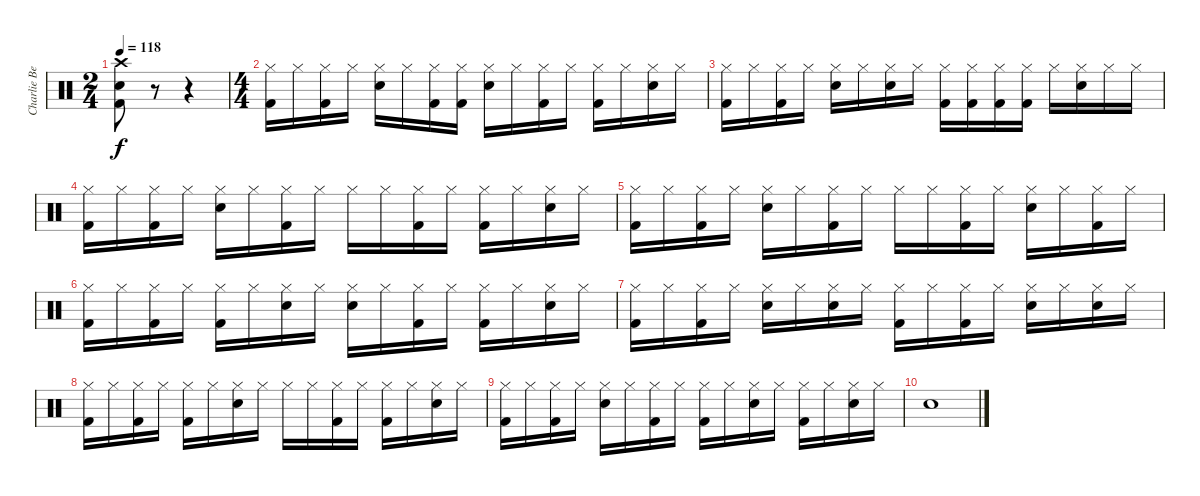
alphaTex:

\track ("Charlie Benante" "Charlie Be") {instrument percussion}
\staff {score}
\articulation defaults
\ts (2 4)
\tempo 118
\clef neutral
\ks c
("Crash high (hit)" "Snare (hit) 2" "Kick (hit) 2").8{dy f} r.8 r.4 |
\ts (4 4)
("Hi-Hat (closed)" "Kick (hit) 2").16 "Hi-Hat (closed)".16 ("Hi-Hat (closed)" "Kick (hit) 2").16 "Hi-Hat (closed)".16 ("Hi-Hat (closed)" "Snare (hit) 2").16 "Hi-Hat (closed)".16 ("Hi-Hat (closed)" "Kick (hit) 2").16 ("Hi-Hat (closed)" "Kick (hit) 2").16 ("Hi-Hat (closed)" "Snare (hit) 2").16 "Hi-Hat (closed)".16 ("Hi-Hat (closed)" "Kick (hit) 2").16 "Hi-Hat (closed)".16 ("Hi-Hat (closed)" "Kick (hit) 2").16 "Hi-Hat (closed)".16 ("Hi-Hat (closed)" "Snare (hit) 2").16 "Hi-Hat (closed)".16 |
("Hi-Hat (closed)" "Kick (hit) 2").16 "Hi-Hat (closed)".16 ("Hi-Hat (closed)" "Kick (hit) 2").16 "Hi-Hat (closed)".16 ("Hi-Hat (closed)" "Snare (hit) 2").16 "Hi-Hat (closed)".16 ("Hi-Hat (closed)" "Snare (hit) 2").16 "Hi-Hat (closed)".16 ("Hi-Hat (closed)" "Kick (hit) 2").16 ("Hi-Hat (closed)" "Kick (hit) 2").16 ("Hi-Hat (closed)" "Kick (hit) 2").16 ("Hi-Hat (closed)" "Kick (hit) 2").16 "Hi-Hat (closed)".16 ("Hi-Hat (closed)" "Snare (hit) 2").16 "Hi-Hat (closed)".16 "Hi-Hat (closed)".16 |
("Hi-Hat (closed)" "Kick (hit) 2").16 "Hi-Hat (closed)".16 ("Hi-Hat (closed)" "Kick (hit) 2").16 "Hi-Hat (closed)".16 ("Hi-Hat (closed)" "Snare (hit) 2").16 "Hi-Hat (closed)".16 ("Hi-Hat (closed)" "Kick (hit) 2").16 "Hi-Hat (closed)".16 "Hi-Hat (closed)".16 "Hi-Hat (closed)".16 ("Hi-Hat (closed)" "Kick (hit) 2").16 "Hi-Hat (closed)".16 ("Hi-Hat (closed)" "Kick (hit) 2").16 "Hi-Hat (closed)".16 ("Hi-Hat (closed)" "Snare (hit) 2").16 "Hi-Hat (closed)".16 |
("Hi-Hat (closed)" "Kick (hit) 2").16 "Hi-Hat (closed)".16 ("Hi-Hat (closed)" "Kick (hit) 2").16 "Hi-Hat (closed)".16 ("Hi-Hat (closed)" "Snare (hit) 2").16 "Hi-Hat (closed)".16 ("Hi-Hat (closed)" "Kick (hit) 2").16 "Hi-Hat (closed)".16 "Hi-Hat (closed)".16 "Hi-Hat (closed)".16 ("Hi-Hat (closed)" "Kick (hit) 2").16 "Hi-Hat (closed)".16 ("Hi-Hat (closed)" "Snare (hit) 2").16 "Hi-Hat (closed)".16 ("Hi-Hat (closed)" "Kick (hit) 2").16 "Hi-Hat (closed)".16 |
("Hi-Hat (closed)" "Kick (hit) 2").16 "Hi-Hat (closed)".16 ("Hi-Hat (closed)" "Kick (hit) 2").16 "Hi-Hat (closed)".16 ("Hi-Hat (closed)" "Kick (hit) 2").16 "Hi-Hat (closed)".16 ("Hi-Hat (closed)" "Snare (hit) 2").16 "Hi-Hat (closed)".16 ("Hi-Hat (closed)" "Snare (hit) 2").16 "Hi-Hat (closed)".16 ("Hi-Hat (closed)" "Kick (hit) 2").16 "Hi-Hat (closed)".16 ("Hi-Hat (closed)" "Kick (hit) 2").16 "Hi-Hat (closed)".16 ("Hi-Hat (closed)" "Snare (hit) 2").16 "Hi-Hat (closed)".16 |
("Hi-Hat (closed)" "Kick (hit) 2").16 "Hi-Hat (closed)".16 ("Hi-Hat (closed)" "Kick (hit) 2").16 "Hi-Hat (closed)".16 ("Hi-Hat (closed)" "Snare (hit) 2").16 "Hi-Hat (closed)".16 ("Hi-Hat (closed)" "Snare (hit) 2").16 "Hi-Hat (closed)".16 ("Hi-Hat (closed)" "Kick (hit) 2").16 "Hi-Hat (closed)".16 ("Hi-Hat (closed)" "Kick (hit) 2").16 "Hi-Hat (closed)".16 ("Hi-Hat (closed)" "Snare (hit) 2").16 "Hi-Hat (closed)".16 ("Hi-Hat (closed)" "Snare (hit) 2").16 "Hi-Hat (closed)".16 |
("Hi-Hat (closed)" "Kick (hit) 2").16 "Hi-Hat (closed)".16 ("Hi-Hat (closed)" "Kick (hit) 2").16 "Hi-Hat (closed)".16 ("Hi-Hat (closed)" "Kick (hit) 2").16 "Hi-Hat (closed)".16 ("Hi-Hat (closed)" "Snare (hit) 2").16 "Hi-Hat (closed)".16 "Hi-Hat (closed)".16 "Hi-Hat (closed)".16 ("Hi-Hat (closed)" "Kick (hit) 2").16 "Hi-Hat (closed)".16 ("Hi-Hat (closed)" "Kick (hit) 2").16 "Hi-Hat (closed)".16 ("Hi-Hat (closed)" "Snare (hit) 2").16 "Hi-Hat (closed)".16 |
("Hi-Hat (closed)" "Kick (hit) 2").16 "Hi-Hat (closed)".16 ("Hi-Hat (closed)" "Kick (hit) 2").16 "Hi-Hat (closed)".16 ("Hi-Hat (closed)" "Snare (hit) 2").16 "Hi-Hat (closed)".16 ("Hi-Hat (closed)" "Kick (hit) 2").16 "Hi-Hat (closed)".16 ("Hi-Hat (closed)" "Kick (hit) 2").16 "Hi-Hat (closed)".16 ("Hi-Hat (closed)" "Snare (hit) 2").16 "Hi-Hat (closed)".16 ("Hi-Hat (closed)" "Kick (hit) 2").16 "Hi-Hat (closed)".16 ("Hi-Hat (closed)" "Snare (hit) 2").16 "Hi-Hat (closed)".16 |
"Snare (hit) 2".1
